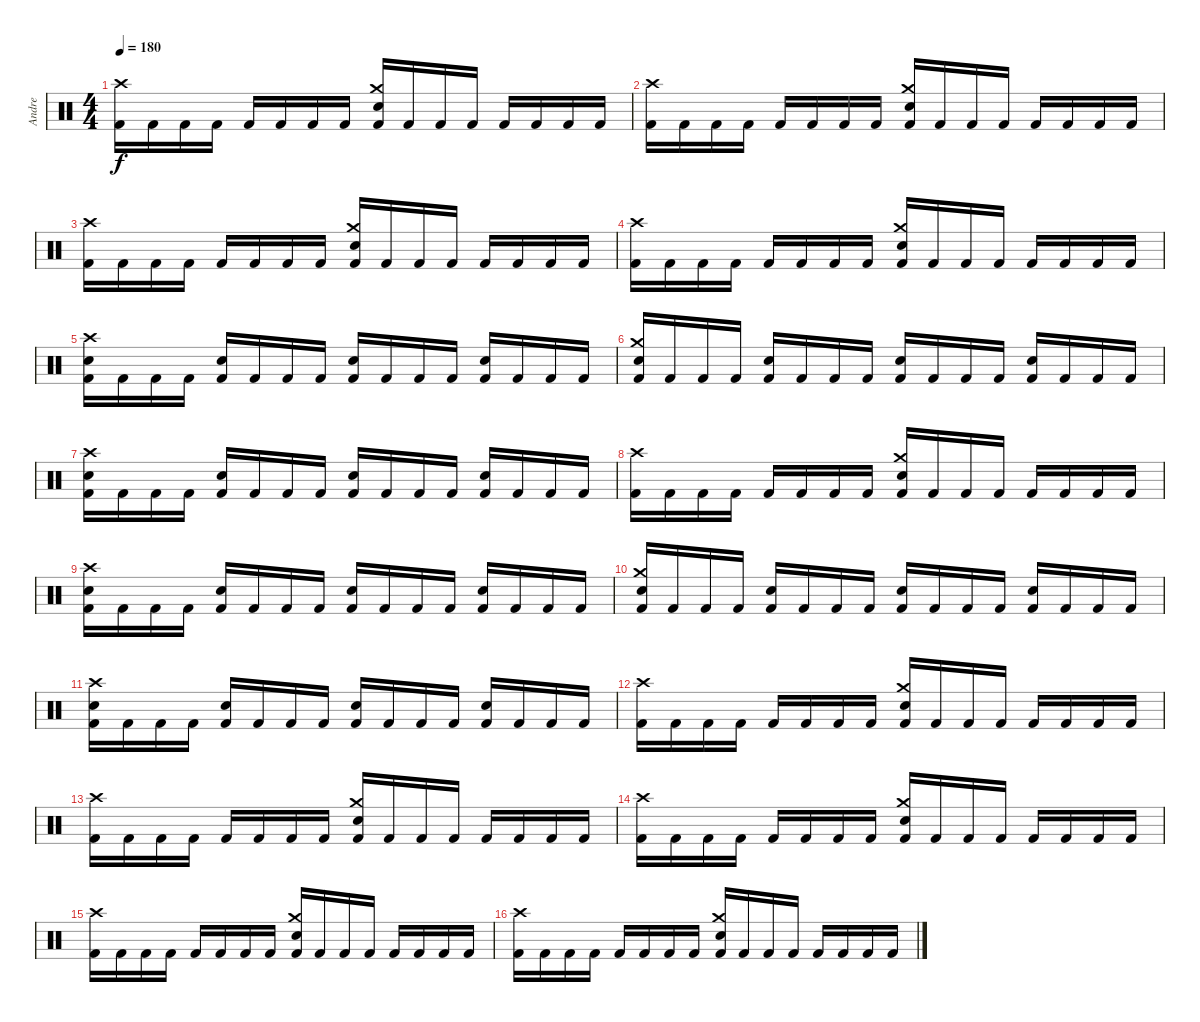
\track ("Andre" "Andre") {instrument percussion}
\staff {score}
\articulation defaults
\ts (4 4)
\tempo 180
\clef neutral
\ks c
("Crash high (hit)" "Kick (hit) 2").16{dy f} "Kick (hit) 2".16 "Kick (hit) 2".16 "Kick (hit) 2".16 "Kick (hit) 2".16 "Kick (hit) 2".16 "Kick (hit) 2".16 "Kick (hit) 2".16 ("Crash medium (hit)" "Snare (hit) 2" "Kick (hit) 2").16 "Kick (hit) 2".16 "Kick (hit) 2".16 "Kick (hit) 2".16 "Kick (hit) 2".16 "Kick (hit) 2".16 "Kick (hit) 2".16 "Kick (hit) 2".16 |
("Crash high (hit)" "Kick (hit) 2").16 "Kick (hit) 2".16 "Kick (hit) 2".16 "Kick (hit) 2".16 "Kick (hit) 2".16 "Kick (hit) 2".16 "Kick (hit) 2".16 "Kick (hit) 2".16 ("Crash medium (hit)" "Snare (hit) 2" "Kick (hit) 2").16 "Kick (hit) 2".16 "Kick (hit) 2".16 "Kick (hit) 2".16 "Kick (hit) 2".16 "Kick (hit) 2".16 "Kick (hit) 2".16 "Kick (hit) 2".16 |
("Crash high (hit)" "Kick (hit) 2").16 "Kick (hit) 2".16 "Kick (hit) 2".16 "Kick (hit) 2".16 "Kick (hit) 2".16 "Kick (hit) 2".16 "Kick (hit) 2".16 "Kick (hit) 2".16 ("Crash medium (hit)" "Snare (hit) 2" "Kick (hit) 2").16 "Kick (hit) 2".16 "Kick (hit) 2".16 "Kick (hit) 2".16 "Kick (hit) 2".16 "Kick (hit) 2".16 "Kick (hit) 2".16 "Kick (hit) 2".16 |
("Crash high (hit)" "Kick (hit) 2").16 "Kick (hit) 2".16 "Kick (hit) 2".16 "Kick (hit) 2".16 "Kick (hit) 2".16 "Kick (hit) 2".16 "Kick (hit) 2".16 "Kick (hit) 2".16 ("Crash medium (hit)" "Snare (hit) 2" "Kick (hit) 2").16 "Kick (hit) 2".16 "Kick (hit) 2".16 "Kick (hit) 2".16 "Kick (hit) 2".16 "Kick (hit) 2".16 "Kick (hit) 2".16 "Kick (hit) 2".16 |
("Crash high (hit)" "Snare (hit) 2" "Kick (hit) 2").16 "Kick (hit) 2".16 "Kick (hit) 2".16 "Kick (hit) 2".16 ("Snare (hit) 2" "Kick (hit) 2").16 "Kick (hit) 2".16 "Kick (hit) 2".16 "Kick (hit) 2".16 ("Snare (hit) 2" "Kick (hit) 2").16 "Kick (hit) 2".16 "Kick (hit) 2".16 "Kick (hit) 2".16 ("Snare (hit) 2" "Kick (hit) 2").16 "Kick (hit) 2".16 "Kick (hit) 2".16 "Kick (hit) 2".16 |
("Crash medium (hit)" "Snare (hit) 2" "Kick (hit) 2").16 "Kick (hit) 2".16 "Kick (hit) 2".16 "Kick (hit) 2".16 ("Snare (hit) 2" "Kick (hit) 2").16 "Kick (hit) 2".16 "Kick (hit) 2".16 "Kick (hit) 2".16 ("Snare (hit) 2" "Kick (hit) 2").16 "Kick (hit) 2".16 "Kick (hit) 2".16 "Kick (hit) 2".16 ("Snare (hit) 2" "Kick (hit) 2").16 "Kick (hit) 2".16 "Kick (hit) 2".16 "Kick (hit) 2".16 |
("Crash high (hit)" "Snare (hit) 2" "Kick (hit) 2").16 "Kick (hit) 2".16 "Kick (hit) 2".16 "Kick (hit) 2".16 ("Snare (hit) 2" "Kick (hit) 2").16 "Kick (hit) 2".16 "Kick (hit) 2".16 "Kick (hit) 2".16 ("Snare (hit) 2" "Kick (hit) 2").16 "Kick (hit) 2".16 "Kick (hit) 2".16 "Kick (hit) 2".16 ("Snare (hit) 2" "Kick (hit) 2").16 "Kick (hit) 2".16 "Kick (hit) 2".16 "Kick (hit) 2".16 |
("Crash high (hit)" "Kick (hit) 2").16 "Kick (hit) 2".16 "Kick (hit) 2".16 "Kick (hit) 2".16 "Kick (hit) 2".16 "Kick (hit) 2".16 "Kick (hit) 2".16 "Kick (hit) 2".16 ("Crash medium (hit)" "Snare (hit) 2" "Kick (hit) 2").16 "Kick (hit) 2".16 "Kick (hit) 2".16 "Kick (hit) 2".16 "Kick (hit) 2".16 "Kick (hit) 2".16 "Kick (hit) 2".16 "Kick (hit) 2".16 |
("Crash high (hit)" "Snare (hit) 2" "Kick (hit) 2").16 "Kick (hit) 2".16 "Kick (hit) 2".16 "Kick (hit) 2".16 ("Snare (hit) 2" "Kick (hit) 2").16 "Kick (hit) 2".16 "Kick (hit) 2".16 "Kick (hit) 2".16 ("Snare (hit) 2" "Kick (hit) 2").16 "Kick (hit) 2".16 "Kick (hit) 2".16 "Kick (hit) 2".16 ("Snare (hit) 2" "Kick (hit) 2").16 "Kick (hit) 2".16 "Kick (hit) 2".16 "Kick (hit) 2".16 |
("Crash medium (hit)" "Snare (hit) 2" "Kick (hit) 2").16 "Kick (hit) 2".16 "Kick (hit) 2".16 "Kick (hit) 2".16 ("Snare (hit) 2" "Kick (hit) 2").16 "Kick (hit) 2".16 "Kick (hit) 2".16 "Kick (hit) 2".16 ("Snare (hit) 2" "Kick (hit) 2").16 "Kick (hit) 2".16 "Kick (hit) 2".16 "Kick (hit) 2".16 ("Snare (hit) 2" "Kick (hit) 2").16 "Kick (hit) 2".16 "Kick (hit) 2".16 "Kick (hit) 2".16 |
("Crash high (hit)" "Snare (hit) 2" "Kick (hit) 2").16 "Kick (hit) 2".16 "Kick (hit) 2".16 "Kick (hit) 2".16 ("Snare (hit) 2" "Kick (hit) 2").16 "Kick (hit) 2".16 "Kick (hit) 2".16 "Kick (hit) 2".16 ("Snare (hit) 2" "Kick (hit) 2").16 "Kick (hit) 2".16 "Kick (hit) 2".16 "Kick (hit) 2".16 ("Snare (hit) 2" "Kick (hit) 2").16 "Kick (hit) 2".16 "Kick (hit) 2".16 "Kick (hit) 2".16 |
("Crash high (hit)" "Kick (hit) 2").16 "Kick (hit) 2".16 "Kick (hit) 2".16 "Kick (hit) 2".16 "Kick (hit) 2".16 "Kick (hit) 2".16 "Kick (hit) 2".16 "Kick (hit) 2".16 ("Crash medium (hit)" "Snare (hit) 2" "Kick (hit) 2").16 "Kick (hit) 2".16 "Kick (hit) 2".16 "Kick (hit) 2".16 "Kick (hit) 2".16 "Kick (hit) 2".16 "Kick (hit) 2".16 "Kick (hit) 2".16 |
("Crash high (hit)" "Kick (hit) 2").16 "Kick (hit) 2".16 "Kick (hit) 2".16 "Kick (hit) 2".16 "Kick (hit) 2".16 "Kick (hit) 2".16 "Kick (hit) 2".16 "Kick (hit) 2".16 ("Crash medium (hit)" "Snare (hit) 2" "Kick (hit) 2").16 "Kick (hit) 2".16 "Kick (hit) 2".16 "Kick (hit) 2".16 "Kick (hit) 2".16 "Kick (hit) 2".16 "Kick (hit) 2".16 "Kick (hit) 2".16 |
("Crash high (hit)" "Kick (hit) 2").16 "Kick (hit) 2".16 "Kick (hit) 2".16 "Kick (hit) 2".16 "Kick (hit) 2".16 "Kick (hit) 2".16 "Kick (hit) 2".16 "Kick (hit) 2".16 ("Crash medium (hit)" "Snare (hit) 2" "Kick (hit) 2").16 "Kick (hit) 2".16 "Kick (hit) 2".16 "Kick (hit) 2".16 "Kick (hit) 2".16 "Kick (hit) 2".16 "Kick (hit) 2".16 "Kick (hit) 2".16 |
("Crash high (hit)" "Kick (hit) 2").16 "Kick (hit) 2".16 "Kick (hit) 2".16 "Kick (hit) 2".16 "Kick (hit) 2".16 "Kick (hit) 2".16 "Kick (hit) 2".16 "Kick (hit) 2".16 ("Crash medium (hit)" "Snare (hit) 2" "Kick (hit) 2").16 "Kick (hit) 2".16 "Kick (hit) 2".16 "Kick (hit) 2".16 "Kick (hit) 2".16 "Kick (hit) 2".16 "Kick (hit) 2".16 "Kick (hit) 2".16 |
("Crash high (hit)" "Kick (hit) 2").16 "Kick (hit) 2".16 "Kick (hit) 2".16 "Kick (hit) 2".16 "Kick (hit) 2".16 "Kick (hit) 2".16 "Kick (hit) 2".16 "Kick (hit) 2".16 ("Crash medium (hit)" "Snare (hit) 2" "Kick (hit) 2").16 "Kick (hit) 2".16 "Kick (hit) 2".16 "Kick (hit) 2".16 "Kick (hit) 2".16 "Kick (hit) 2".16 "Kick (hit) 2".16 "Kick (hit) 2".16
